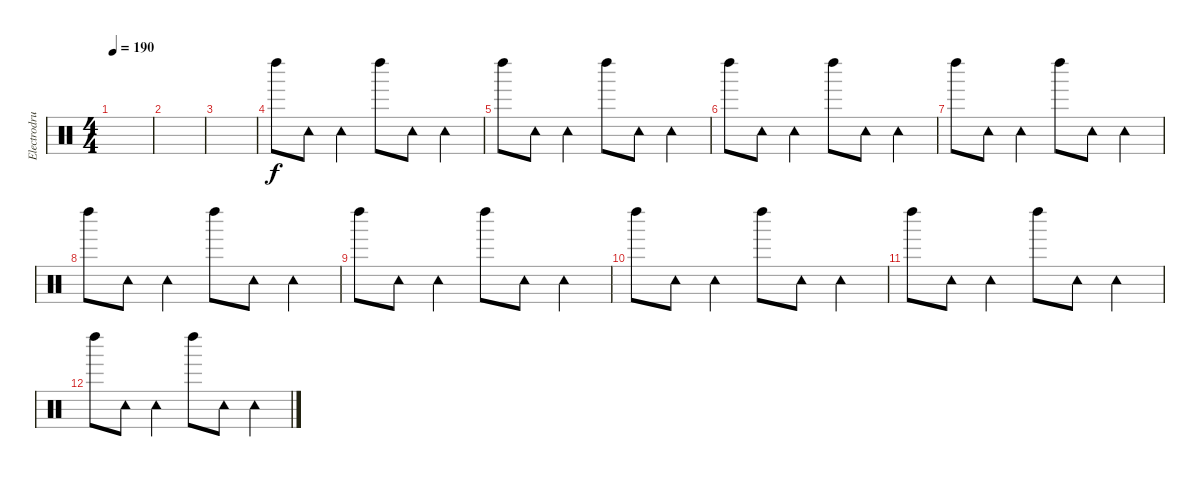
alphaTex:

\track ("Electrodrums2" "Electrodru") {instrument percussion}
\staff {score}
\articulation defaults
\ts (4 4)
\tempo 190
\clef neutral
\ks c
|
|
|
"Left Maraca (hit)".8 "Tambourine (hit)".8 "Tambourine (hit)".4 "Left Maraca (hit)".8 "Tambourine (hit)".8 "Tambourine (hit)".4 |
"Left Maraca (hit)".8 "Tambourine (hit)".8 "Tambourine (hit)".4 "Left Maraca (hit)".8 "Tambourine (hit)".8 "Tambourine (hit)".4 |
"Left Maraca (hit)".8 "Tambourine (hit)".8 "Tambourine (hit)".4 "Left Maraca (hit)".8 "Tambourine (hit)".8 "Tambourine (hit)".4 |
"Left Maraca (hit)".8 "Tambourine (hit)".8 "Tambourine (hit)".4 "Left Maraca (hit)".8 "Tambourine (hit)".8 "Tambourine (hit)".4 |
"Left Maraca (hit)".8 "Tambourine (hit)".8 "Tambourine (hit)".4 "Left Maraca (hit)".8 "Tambourine (hit)".8 "Tambourine (hit)".4 |
"Left Maraca (hit)".8 "Tambourine (hit)".8 "Tambourine (hit)".4 "Left Maraca (hit)".8 "Tambourine (hit)".8 "Tambourine (hit)".4 |
"Left Maraca (hit)".8 "Tambourine (hit)".8 "Tambourine (hit)".4 "Left Maraca (hit)".8 "Tambourine (hit)".8 "Tambourine (hit)".4 |
"Left Maraca (hit)".8 "Tambourine (hit)".8 "Tambourine (hit)".4 "Left Maraca (hit)".8 "Tambourine (hit)".8 "Tambourine (hit)".4 |
"Left Maraca (hit)".8 "Tambourine (hit)".8 "Tambourine (hit)".4 "Left Maraca (hit)".8 "Tambourine (hit)".8 "Tambourine (hit)".4
